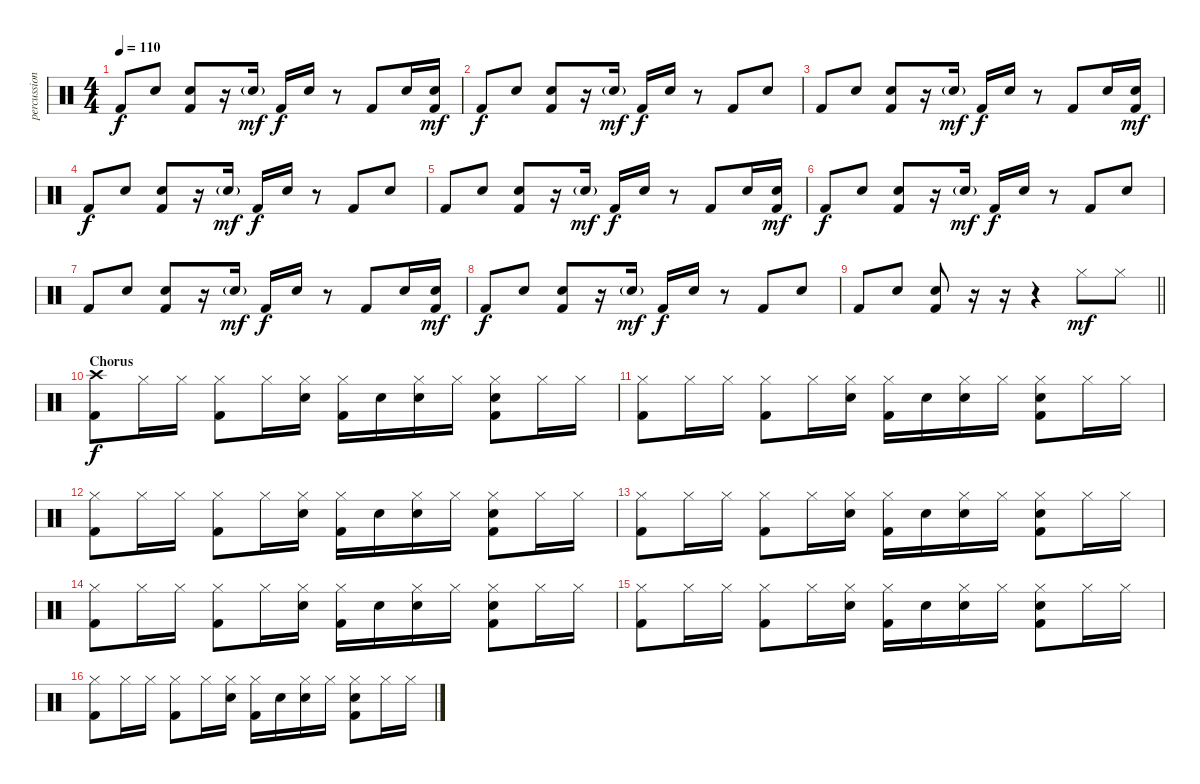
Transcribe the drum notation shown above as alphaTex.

\track ("percussion []" "percussion") {instrument percussion}
\staff {score}
\articulation defaults
\ts (4 4)
\tempo 110
\clef neutral
\ks c "Kick (hit) 2".8{dy f} "Electric Snare (hit)".8
("Electric Snare (hit)" "Kick (hit) 2").8 r.16 "Electric Snare (hit)"{g}.16{dy mf} "Kick (hit) 2".16{dy f} "Electric Snare (hit)".16 r.8 "Kick (hit) 2".8 "Electric Snare (hit)".16 ("Electric Snare (hit)" "Kick (hit) 2").16{dy mf} |
"Kick (hit) 2".8{dy f} "Electric Snare (hit)".8 ("Electric Snare (hit)" "Kick (hit) 2").8 r.16 "Electric Snare (hit)"{g}.16{dy mf} "Kick (hit) 2".16{dy f} "Electric Snare (hit)".16 r.8 "Kick (hit) 2".8 "Electric Snare (hit)".8 |
"Kick (hit) 2".8 "Electric Snare (hit)".8 ("Electric Snare (hit)" "Kick (hit) 2").8 r.16 "Electric Snare (hit)"{g}.16{dy mf} "Kick (hit) 2".16{dy f} "Electric Snare (hit)".16 r.8 "Kick (hit) 2".8 "Electric Snare (hit)".16 ("Electric Snare (hit)" "Kick (hit) 2").16{dy mf} |
"Kick (hit) 2".8{dy f} "Electric Snare (hit)".8 ("Electric Snare (hit)" "Kick (hit) 2").8 r.16 "Electric Snare (hit)"{g}.16{dy mf} "Kick (hit) 2".16{dy f} "Electric Snare (hit)".16 r.8 "Kick (hit) 2".8 "Electric Snare (hit)".8 |
"Kick (hit) 2".8 "Electric Snare (hit)".8 ("Electric Snare (hit)" "Kick (hit) 2").8 r.16 "Electric Snare (hit)"{g}.16{dy mf} "Kick (hit) 2".16{dy f} "Electric Snare (hit)".16 r.8 "Kick (hit) 2".8 "Electric Snare (hit)".16 ("Electric Snare (hit)" "Kick (hit) 2").16{dy mf} |
"Kick (hit) 2".8{dy f} "Electric Snare (hit)".8 ("Electric Snare (hit)" "Kick (hit) 2").8 r.16 "Electric Snare (hit)"{g}.16{dy mf} "Kick (hit) 2".16{dy f} "Electric Snare (hit)".16 r.8 "Kick (hit) 2".8 "Electric Snare (hit)".8 |
"Kick (hit) 2".8 "Electric Snare (hit)".8 ("Electric Snare (hit)" "Kick (hit) 2").8 r.16 "Electric Snare (hit)"{g}.16{dy mf} "Kick (hit) 2".16{dy f} "Electric Snare (hit)".16 r.8 "Kick (hit) 2".8 "Electric Snare (hit)".16 ("Electric Snare (hit)" "Kick (hit) 2").16{dy mf} |
"Kick (hit) 2".8{dy f} "Electric Snare (hit)".8 ("Electric Snare (hit)" "Kick (hit) 2").8 r.16 "Electric Snare (hit)"{g}.16{dy mf} "Kick (hit) 2".16{dy f} "Electric Snare (hit)".16 r.8 "Kick (hit) 2".8 "Electric Snare (hit)".8 |
\barLineRight lightlight "Kick (hit) 2".8 "Electric Snare (hit)".8
("Electric Snare (hit)" "Kick (hit) 2").8 r.16 r.16 r.4 "Hi-Hat (closed)".8{dy mf} "Hi-Hat (closed)".8 |
\section ("" "Chorus")
("Crash high (hit)" "Kick (hit) 2").8{dy f} "Hi-Hat (closed)".16 "Hi-Hat (closed)".16 ("Hi-Hat (closed)" "Kick (hit) 2").8 "Hi-Hat (closed)".16 ("Electric Snare (hit)" "Hi-Hat (closed)").16 ("Hi-Hat (closed)" "Kick (hit) 2").16 "Electric Snare (hit)".16 ("Electric Snare (hit)" "Hi-Hat (closed)").16 "Hi-Hat (closed)".16 ("Electric Snare (hit)" "Hi-Hat (closed)" "Kick (hit) 2").8 "Hi-Hat (closed)".16 "Hi-Hat (closed)".16 |
("Hi-Hat (closed)" "Kick (hit) 2").8 "Hi-Hat (closed)".16 "Hi-Hat (closed)".16 ("Hi-Hat (closed)" "Kick (hit) 2").8 "Hi-Hat (closed)".16 ("Electric Snare (hit)" "Hi-Hat (closed)").16 ("Hi-Hat (closed)" "Kick (hit) 2").16 "Electric Snare (hit)".16 ("Electric Snare (hit)" "Hi-Hat (closed)").16 "Hi-Hat (closed)".16 ("Electric Snare (hit)" "Hi-Hat (closed)" "Kick (hit) 2").8 "Hi-Hat (closed)".16 "Hi-Hat (closed)".16 |
("Hi-Hat (closed)" "Kick (hit) 2").8 "Hi-Hat (closed)".16 "Hi-Hat (closed)".16 ("Hi-Hat (closed)" "Kick (hit) 2").8 "Hi-Hat (closed)".16 ("Electric Snare (hit)" "Hi-Hat (closed)").16 ("Hi-Hat (closed)" "Kick (hit) 2").16 "Electric Snare (hit)".16 ("Electric Snare (hit)" "Hi-Hat (closed)").16 "Hi-Hat (closed)".16 ("Electric Snare (hit)" "Hi-Hat (closed)" "Kick (hit) 2").8 "Hi-Hat (closed)".16 "Hi-Hat (closed)".16 |
("Hi-Hat (closed)" "Kick (hit) 2").8 "Hi-Hat (closed)".16 "Hi-Hat (closed)".16 ("Hi-Hat (closed)" "Kick (hit) 2").8 "Hi-Hat (closed)".16 ("Electric Snare (hit)" "Hi-Hat (closed)").16 ("Hi-Hat (closed)" "Kick (hit) 2").16 "Electric Snare (hit)".16 ("Electric Snare (hit)" "Hi-Hat (closed)").16 "Hi-Hat (closed)".16 ("Electric Snare (hit)" "Hi-Hat (closed)" "Kick (hit) 2").8 "Hi-Hat (closed)".16 "Hi-Hat (closed)".16 |
("Hi-Hat (closed)" "Kick (hit) 2").8 "Hi-Hat (closed)".16 "Hi-Hat (closed)".16 ("Hi-Hat (closed)" "Kick (hit) 2").8 "Hi-Hat (closed)".16 ("Electric Snare (hit)" "Hi-Hat (closed)").16 ("Hi-Hat (closed)" "Kick (hit) 2").16 "Electric Snare (hit)".16 ("Electric Snare (hit)" "Hi-Hat (closed)").16 "Hi-Hat (closed)".16 ("Electric Snare (hit)" "Hi-Hat (closed)" "Kick (hit) 2").8 "Hi-Hat (closed)".16 "Hi-Hat (closed)".16 |
("Hi-Hat (closed)" "Kick (hit) 2").8 "Hi-Hat (closed)".16 "Hi-Hat (closed)".16 ("Hi-Hat (closed)" "Kick (hit) 2").8 "Hi-Hat (closed)".16 ("Electric Snare (hit)" "Hi-Hat (closed)").16 ("Hi-Hat (closed)" "Kick (hit) 2").16 "Electric Snare (hit)".16 ("Electric Snare (hit)" "Hi-Hat (closed)").16 "Hi-Hat (closed)".16 ("Electric Snare (hit)" "Hi-Hat (closed)" "Kick (hit) 2").8 "Hi-Hat (closed)".16 "Hi-Hat (closed)".16 |
("Hi-Hat (closed)" "Kick (hit) 2").8 "Hi-Hat (closed)".16 "Hi-Hat (closed)".16 ("Hi-Hat (closed)" "Kick (hit) 2").8 "Hi-Hat (closed)".16 ("Electric Snare (hit)" "Hi-Hat (closed)").16 ("Hi-Hat (closed)" "Kick (hit) 2").16 "Electric Snare (hit)".16 ("Electric Snare (hit)" "Hi-Hat (closed)").16 "Hi-Hat (closed)".16 ("Electric Snare (hit)" "Hi-Hat (closed)" "Kick (hit) 2").8 "Hi-Hat (closed)".16 "Hi-Hat (closed)".16
